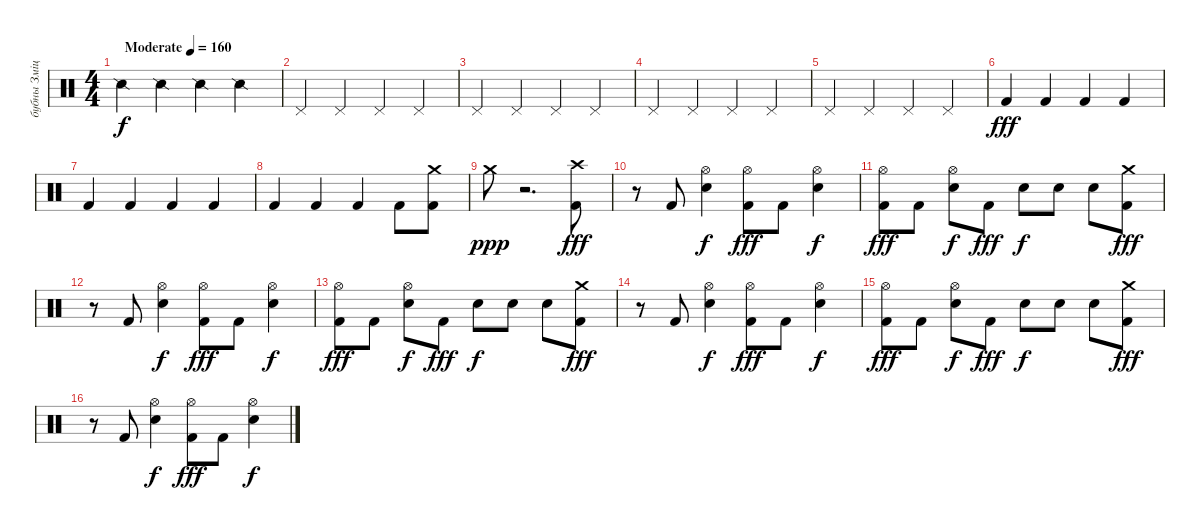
\track ("бубны Змiцер" "бубны Змiц") {instrument percussion}
\staff {score}
\articulation defaults
\ts (4 4)
\tempo (160 "Moderate")
\clef neutral
\ks c "Snare (side stick) 2".4{dy f} "Snare (side stick) 2".4 "Snare (side stick) 2".4 "Snare (side stick) 2".4
|
"Pedal Hi-Hat (hit)".4 "Pedal Hi-Hat (hit)".4 "Pedal Hi-Hat (hit)".4 "Pedal Hi-Hat (hit)".4 |
"Pedal Hi-Hat (hit)".4 "Pedal Hi-Hat (hit)".4 "Pedal Hi-Hat (hit)".4 "Pedal Hi-Hat (hit)".4 |
"Pedal Hi-Hat (hit)".4 "Pedal Hi-Hat (hit)".4 "Pedal Hi-Hat (hit)".4 "Pedal Hi-Hat (hit)".4 |
"Pedal Hi-Hat (hit)".4 "Pedal Hi-Hat (hit)".4 "Pedal Hi-Hat (hit)".4 "Pedal Hi-Hat (hit)".4 |
"Kick (hit) 2".4{dy fff} "Kick (hit) 2".4 "Kick (hit) 2".4 "Kick (hit) 2".4 |
"Kick (hit) 2".4 "Kick (hit) 2".4 "Kick (hit) 2".4 "Kick (hit) 2".4 |
"Kick (hit) 2".4 "Kick (hit) 2".4 "Kick (hit) 2".4 "Kick (hit) 2".8 ("Crash medium (hit)" "Kick (hit) 2").8 |
"Crash medium (hit)".8{dy ppp} r.2{d} ("Crash high (hit)" "Kick (hit) 2").8{dy fff} |
r.8 "Kick (hit) 2".8 ("Hi-Hat (open)" "Electric Snare (hit)").4{dy f} ("Hi-Hat (open)" "Kick (hit) 2").8{dy fff} "Kick (hit) 2".8 ("Hi-Hat (open)" "Electric Snare (hit)").4{dy f} |
("Hi-Hat (open)" "Kick (hit) 2").8{dy fff} "Kick (hit) 2".8 ("Hi-Hat (open)" "Electric Snare (hit)").8{dy f} "Kick (hit) 2".8{dy fff} "Electric Snare (hit)".8{dy f} "Electric Snare (hit)".8 "Electric Snare (hit)".8 ("Crash medium (hit)" "Kick (hit) 2").8{dy fff} |
r.8 "Kick (hit) 2".8 ("Hi-Hat (open)" "Electric Snare (hit)").4{dy f} ("Hi-Hat (open)" "Kick (hit) 2").8{dy fff} "Kick (hit) 2".8 ("Hi-Hat (open)" "Electric Snare (hit)").4{dy f} |
("Hi-Hat (open)" "Kick (hit) 2").8{dy fff} "Kick (hit) 2".8 ("Hi-Hat (open)" "Electric Snare (hit)").8{dy f} "Kick (hit) 2".8{dy fff} "Electric Snare (hit)".8{dy f} "Electric Snare (hit)".8 "Electric Snare (hit)".8 ("Crash medium (hit)" "Kick (hit) 2").8{dy fff} |
r.8 "Kick (hit) 2".8 ("Hi-Hat (open)" "Electric Snare (hit)").4{dy f} ("Hi-Hat (open)" "Kick (hit) 2").8{dy fff} "Kick (hit) 2".8 ("Hi-Hat (open)" "Electric Snare (hit)").4{dy f} |
("Hi-Hat (open)" "Kick (hit) 2").8{dy fff} "Kick (hit) 2".8 ("Hi-Hat (open)" "Electric Snare (hit)").8{dy f} "Kick (hit) 2".8{dy fff} "Electric Snare (hit)".8{dy f} "Electric Snare (hit)".8 "Electric Snare (hit)".8 ("Crash medium (hit)" "Kick (hit) 2").8{dy fff} |
r.8 "Kick (hit) 2".8 ("Hi-Hat (open)" "Electric Snare (hit)").4{dy f} ("Hi-Hat (open)" "Kick (hit) 2").8{dy fff} "Kick (hit) 2".8 ("Hi-Hat (open)" "Electric Snare (hit)").4{dy f}
